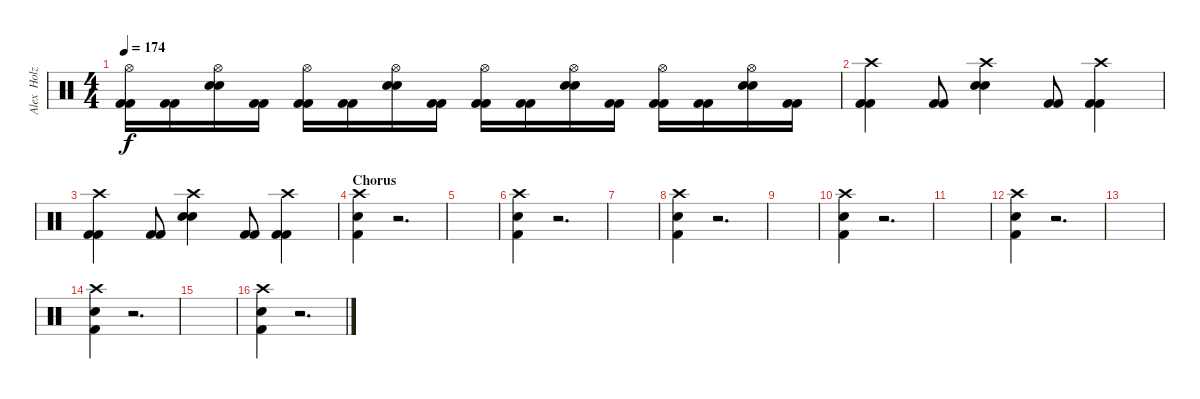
\track ("Alex  Holzwarth (Drums)" "Alex  Holz") {instrument percussion}
\staff {score}
\articulation defaults
\ts (4 4)
\tempo 174
\clef neutral
\ks c
("Hi-Hat (open)" "Kick (hit) 2" "Kick (hit) 2").16{dy f} ("Kick (hit) 2" "Kick (hit) 2").16 ("Hi-Hat (open)" "Snare (hit) 2" "Snare (hit) 2").16 ("Kick (hit) 2" "Kick (hit) 2").16 ("Hi-Hat (open)" "Kick (hit) 2" "Kick (hit) 2").16 ("Kick (hit) 2" "Kick (hit) 2").16 ("Hi-Hat (open)" "Snare (hit) 2" "Snare (hit) 2").16 ("Kick (hit) 2" "Kick (hit) 2").16 ("Hi-Hat (open)" "Kick (hit) 2" "Kick (hit) 2").16 ("Kick (hit) 2" "Kick (hit) 2").16 ("Hi-Hat (open)" "Snare (hit) 2" "Snare (hit) 2").16 ("Kick (hit) 2" "Kick (hit) 2").16 ("Hi-Hat (open)" "Kick (hit) 2" "Kick (hit) 2").16 ("Kick (hit) 2" "Kick (hit) 2").16 ("Hi-Hat (open)" "Snare (hit) 2" "Snare (hit) 2").16 ("Kick (hit) 2" "Kick (hit) 2").16 |
("Crash high (hit)" "Kick (hit) 2" "Kick (hit) 2").4 ("Kick (hit) 2" "Kick (hit) 2").8 ("Crash high (hit)" "Snare (hit) 2" "Snare (hit) 2").4 ("Kick (hit) 2" "Kick (hit) 2").8 ("Crash high (hit)" "Kick (hit) 2" "Kick (hit) 2").4 |
("Crash high (hit)" "Kick (hit) 2" "Kick (hit) 2").4 ("Kick (hit) 2" "Kick (hit) 2").8 ("Crash high (hit)" "Snare (hit) 2" "Snare (hit) 2").4 ("Kick (hit) 2" "Kick (hit) 2").8 ("Crash high (hit)" "Kick (hit) 2" "Kick (hit) 2").4 |
\section ("" "Chorus")
("Crash high (hit)" "Snare (hit) 2" "Kick (hit) 2").4 r.2{d} |
|
("Crash high (hit)" "Snare (hit) 2" "Kick (hit) 2").4 r.2{d} |
|
("Crash high (hit)" "Snare (hit) 2" "Kick (hit) 2").4 r.2{d} |
|
("Crash high (hit)" "Snare (hit) 2" "Kick (hit) 2").4 r.2{d} |
|
("Crash high (hit)" "Snare (hit) 2" "Kick (hit) 2").4 r.2{d} |
|
("Crash high (hit)" "Snare (hit) 2" "Kick (hit) 2").4 r.2{d} |
|
("Crash high (hit)" "Snare (hit) 2" "Kick (hit) 2").4 r.2{d}
